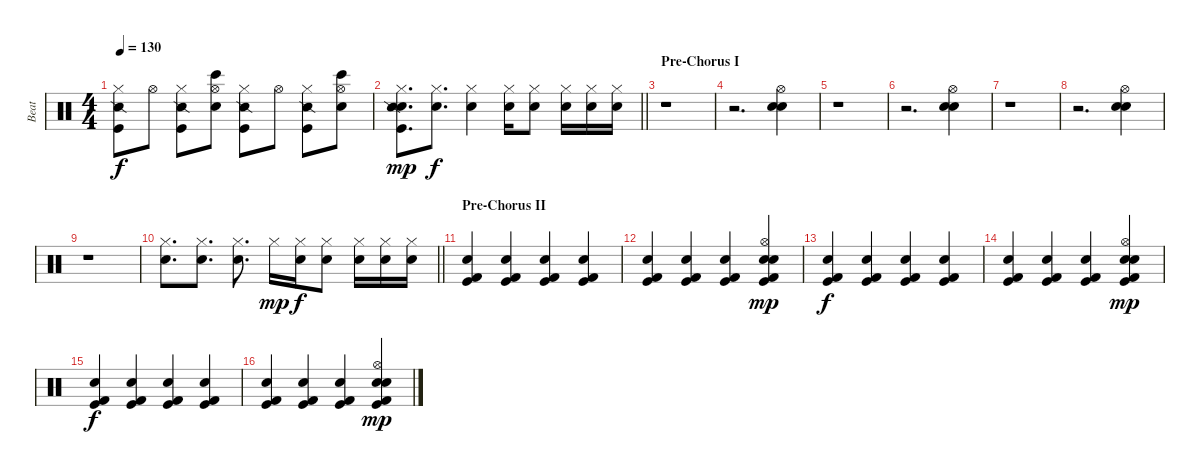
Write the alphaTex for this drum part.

\track ("Beat" "Beat") {instrument percussion}
\staff {score}
\articulation defaults
\ts (4 4)
\tempo 130
\clef neutral
\ks c
("Hi-Hat (closed)" "Snare (side stick) 2" "Kick (hit)").8{dy f} "Hi-Hat (open)".8 ("Hi-Hat (closed)" "Snare (side stick) 2" "Kick (hit)").8 ("Hi-Hat (open)" "Hand Clap (hit)" "Bongo High (hit)").8 ("Hi-Hat (closed)" "Snare (side stick) 2" "Kick (hit)").8 "Hi-Hat (open)".8 ("Hi-Hat (closed)" "Snare (side stick) 2" "Kick (hit)").8 ("Hi-Hat (open)" "Hand Clap (hit)" "Bongo High (hit)").8 |
\barLineRight lightlight
("Hi-Hat (closed)" "Snare (hit) 2" "Snare (side stick) 2" "Kick (hit)").8{d dy mp} ("Hi-Hat (closed)" "Snare (hit) 2").8{d dy f} ("Hi-Hat (closed)" "Snare (hit) 2").4 ("Hi-Hat (closed)" "Snare (hit) 2").16 ("Hi-Hat (closed)" "Snare (hit) 2").8 ("Hi-Hat (closed)" "Snare (hit) 2").16 ("Hi-Hat (closed)" "Snare (hit) 2").16 ("Hi-Hat (closed)" "Snare (hit) 2").16 |
\section ("" "Pre-Chorus I")
r.1 |
r.2{d} ("Hi-Hat (open)" "Hand Clap (hit)" "Snare (hit) 2").4 |
r.1 |
r.2{d} ("Hi-Hat (open)" "Hand Clap (hit)" "Snare (hit) 2").4 |
r.1 |
r.2{d} ("Hi-Hat (open)" "Hand Clap (hit)" "Snare (hit) 2").4 |
r.1 |
\barLineRight lightlight
("Hi-Hat (closed)" "Snare (hit) 2").8{d} ("Hi-Hat (closed)" "Snare (hit) 2").8{d} ("Hi-Hat (closed)" "Snare (hit) 2").8{d} "Hi-Hat (closed)".16{dy mp} ("Hi-Hat (closed)" "Snare (hit) 2").16{dy f} ("Hi-Hat (closed)" "Snare (hit) 2").8 ("Hi-Hat (closed)" "Snare (hit) 2").16 ("Hi-Hat (closed)" "Snare (hit) 2").16 ("Hi-Hat (closed)" "Snare (hit) 2").16 |
\section ("" "Pre-Chorus II")
("Hand Clap (hit)" "Kick (hit)" "Kick (hit) 2").4 ("Hand Clap (hit)" "Kick (hit)" "Kick (hit) 2").4 ("Hand Clap (hit)" "Kick (hit)" "Kick (hit) 2").4 ("Hand Clap (hit)" "Kick (hit)" "Kick (hit) 2").4 |
("Hand Clap (hit)" "Kick (hit)" "Kick (hit) 2").4 ("Hand Clap (hit)" "Kick (hit)" "Kick (hit) 2").4 ("Hand Clap (hit)" "Kick (hit)" "Kick (hit) 2").4 ("Hi-Hat (open)" "Hand Clap (hit)" "Snare (hit) 2" "Kick (hit)" "Kick (hit) 2").4{dy mp} |
("Hand Clap (hit)" "Kick (hit)" "Kick (hit) 2").4{dy f} ("Hand Clap (hit)" "Kick (hit)" "Kick (hit) 2").4 ("Hand Clap (hit)" "Kick (hit)" "Kick (hit) 2").4 ("Hand Clap (hit)" "Kick (hit)" "Kick (hit) 2").4 |
("Hand Clap (hit)" "Kick (hit)" "Kick (hit) 2").4 ("Hand Clap (hit)" "Kick (hit)" "Kick (hit) 2").4 ("Hand Clap (hit)" "Kick (hit)" "Kick (hit) 2").4 ("Hi-Hat (open)" "Hand Clap (hit)" "Snare (hit) 2" "Kick (hit)" "Kick (hit) 2").4{dy mp} |
("Hand Clap (hit)" "Kick (hit)" "Kick (hit) 2").4{dy f} ("Hand Clap (hit)" "Kick (hit)" "Kick (hit) 2").4 ("Hand Clap (hit)" "Kick (hit)" "Kick (hit) 2").4 ("Hand Clap (hit)" "Kick (hit)" "Kick (hit) 2").4 |
("Hand Clap (hit)" "Kick (hit)" "Kick (hit) 2").4 ("Hand Clap (hit)" "Kick (hit)" "Kick (hit) 2").4 ("Hand Clap (hit)" "Kick (hit)" "Kick (hit) 2").4 ("Hi-Hat (open)" "Hand Clap (hit)" "Snare (hit) 2" "Kick (hit)" "Kick (hit) 2").4{dy mp}
